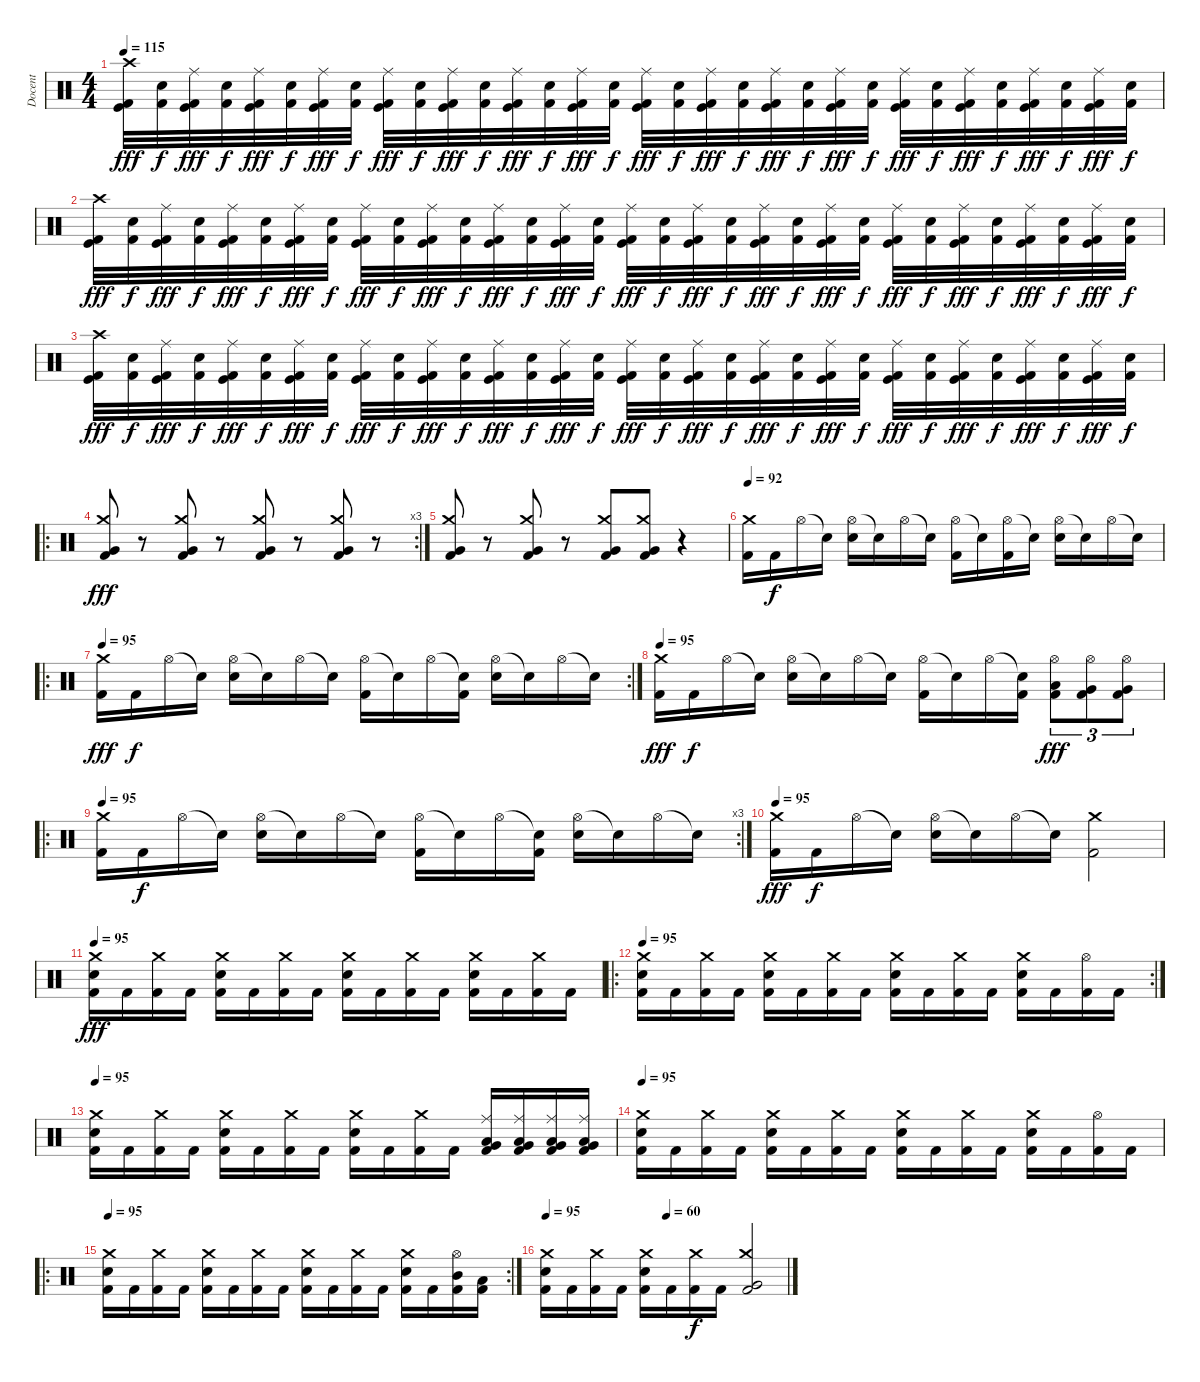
\track ("Docent" "Docent") {instrument percussion}
\staff {score}
\articulation defaults
\ts (4 4)
\tempo 115
\clef neutral
\ks c
("Crash high (hit)" "Kick (hit)" "Kick (hit) 2").32{dy fff} ("Electric Snare (hit)" "Kick (hit) 2").32{dy f} ("Ride (middle)" "Kick (hit)" "Kick (hit) 2").32{dy fff} ("Electric Snare (hit)" "Kick (hit) 2").32{dy f} ("Ride (middle)" "Kick (hit)" "Kick (hit) 2").32{dy fff} ("Electric Snare (hit)" "Kick (hit) 2").32{dy f} ("Ride (middle)" "Kick (hit)" "Kick (hit) 2").32{dy fff} ("Electric Snare (hit)" "Kick (hit) 2").32{dy f} ("Ride (middle)" "Kick (hit)" "Kick (hit) 2").32{dy fff} ("Electric Snare (hit)" "Kick (hit) 2").32{dy f} ("Ride (middle)" "Kick (hit)" "Kick (hit) 2").32{dy fff} ("Electric Snare (hit)" "Kick (hit) 2").32{dy f} ("Ride (middle)" "Kick (hit)" "Kick (hit) 2").32{dy fff} ("Electric Snare (hit)" "Kick (hit) 2").32{dy f} ("Ride (middle)" "Kick (hit)" "Kick (hit) 2").32{dy fff} ("Electric Snare (hit)" "Kick (hit) 2").32{dy f} ("Ride (middle)" "Kick (hit)" "Kick (hit) 2").32{dy fff} ("Electric Snare (hit)" "Kick (hit) 2").32{dy f} ("Ride (middle)" "Kick (hit)" "Kick (hit) 2").32{dy fff} ("Electric Snare (hit)" "Kick (hit) 2").32{dy f} ("Ride (middle)" "Kick (hit)" "Kick (hit) 2").32{dy fff} ("Electric Snare (hit)" "Kick (hit) 2").32{dy f} ("Ride (middle)" "Kick (hit)" "Kick (hit) 2").32{dy fff} ("Electric Snare (hit)" "Kick (hit) 2").32{dy f} ("Ride (middle)" "Kick (hit)" "Kick (hit) 2").32{dy fff} ("Electric Snare (hit)" "Kick (hit) 2").32{dy f} ("Ride (middle)" "Kick (hit)" "Kick (hit) 2").32{dy fff} ("Electric Snare (hit)" "Kick (hit) 2").32{dy f} ("Ride (middle)" "Kick (hit)" "Kick (hit) 2").32{dy fff} ("Electric Snare (hit)" "Kick (hit) 2").32{dy f} ("Ride (middle)" "Kick (hit)" "Kick (hit) 2").32{dy fff} ("Electric Snare (hit)" "Kick (hit) 2").32{dy f} |
("Crash high (hit)" "Kick (hit)" "Kick (hit) 2").32{dy fff} ("Electric Snare (hit)" "Kick (hit) 2").32{dy f} ("Ride (middle)" "Kick (hit)" "Kick (hit) 2").32{dy fff} ("Electric Snare (hit)" "Kick (hit) 2").32{dy f} ("Ride (middle)" "Kick (hit)" "Kick (hit) 2").32{dy fff} ("Electric Snare (hit)" "Kick (hit) 2").32{dy f} ("Ride (middle)" "Kick (hit)" "Kick (hit) 2").32{dy fff} ("Electric Snare (hit)" "Kick (hit) 2").32{dy f} ("Ride (middle)" "Kick (hit)" "Kick (hit) 2").32{dy fff} ("Electric Snare (hit)" "Kick (hit) 2").32{dy f} ("Ride (middle)" "Kick (hit)" "Kick (hit) 2").32{dy fff} ("Electric Snare (hit)" "Kick (hit) 2").32{dy f} ("Ride (middle)" "Kick (hit)" "Kick (hit) 2").32{dy fff} ("Electric Snare (hit)" "Kick (hit) 2").32{dy f} ("Ride (middle)" "Kick (hit)" "Kick (hit) 2").32{dy fff} ("Electric Snare (hit)" "Kick (hit) 2").32{dy f} ("Ride (middle)" "Kick (hit)" "Kick (hit) 2").32{dy fff} ("Electric Snare (hit)" "Kick (hit) 2").32{dy f} ("Ride (middle)" "Kick (hit)" "Kick (hit) 2").32{dy fff} ("Electric Snare (hit)" "Kick (hit) 2").32{dy f} ("Ride (middle)" "Kick (hit)" "Kick (hit) 2").32{dy fff} ("Electric Snare (hit)" "Kick (hit) 2").32{dy f} ("Ride (middle)" "Kick (hit)" "Kick (hit) 2").32{dy fff} ("Electric Snare (hit)" "Kick (hit) 2").32{dy f} ("Ride (middle)" "Kick (hit)" "Kick (hit) 2").32{dy fff} ("Electric Snare (hit)" "Kick (hit) 2").32{dy f} ("Ride (middle)" "Kick (hit)" "Kick (hit) 2").32{dy fff} ("Electric Snare (hit)" "Kick (hit) 2").32{dy f} ("Ride (middle)" "Kick (hit)" "Kick (hit) 2").32{dy fff} ("Electric Snare (hit)" "Kick (hit) 2").32{dy f} ("Ride (middle)" "Kick (hit)" "Kick (hit) 2").32{dy fff} ("Electric Snare (hit)" "Kick (hit) 2").32{dy f} |
("Crash high (hit)" "Kick (hit)" "Kick (hit) 2").32{dy fff} ("Electric Snare (hit)" "Kick (hit) 2").32{dy f} ("Ride (middle)" "Kick (hit)" "Kick (hit) 2").32{dy fff} ("Electric Snare (hit)" "Kick (hit) 2").32{dy f} ("Ride (middle)" "Kick (hit)" "Kick (hit) 2").32{dy fff} ("Electric Snare (hit)" "Kick (hit) 2").32{dy f} ("Ride (middle)" "Kick (hit)" "Kick (hit) 2").32{dy fff} ("Electric Snare (hit)" "Kick (hit) 2").32{dy f} ("Ride (middle)" "Kick (hit)" "Kick (hit) 2").32{dy fff} ("Electric Snare (hit)" "Kick (hit) 2").32{dy f} ("Ride (middle)" "Kick (hit)" "Kick (hit) 2").32{dy fff} ("Electric Snare (hit)" "Kick (hit) 2").32{dy f} ("Ride (middle)" "Kick (hit)" "Kick (hit) 2").32{dy fff} ("Electric Snare (hit)" "Kick (hit) 2").32{dy f} ("Ride (middle)" "Kick (hit)" "Kick (hit) 2").32{dy fff} ("Electric Snare (hit)" "Kick (hit) 2").32{dy f} ("Ride (middle)" "Kick (hit)" "Kick (hit) 2").32{dy fff} ("Electric Snare (hit)" "Kick (hit) 2").32{dy f} ("Ride (middle)" "Kick (hit)" "Kick (hit) 2").32{dy fff} ("Electric Snare (hit)" "Kick (hit) 2").32{dy f} ("Ride (middle)" "Kick (hit)" "Kick (hit) 2").32{dy fff} ("Electric Snare (hit)" "Kick (hit) 2").32{dy f} ("Ride (middle)" "Kick (hit)" "Kick (hit) 2").32{dy fff} ("Electric Snare (hit)" "Kick (hit) 2").32{dy f} ("Ride (middle)" "Kick (hit)" "Kick (hit) 2").32{dy fff} ("Electric Snare (hit)" "Kick (hit) 2").32{dy f} ("Ride (middle)" "Kick (hit)" "Kick (hit) 2").32{dy fff} ("Electric Snare (hit)" "Kick (hit) 2").32{dy f} ("Ride (middle)" "Kick (hit)" "Kick (hit) 2").32{dy fff} ("Electric Snare (hit)" "Kick (hit) 2").32{dy f} ("Ride (middle)" "Kick (hit)" "Kick (hit) 2").32{dy fff} ("Electric Snare (hit)" "Kick (hit) 2").32{dy f} |
\ro
\rc 3
("Crash medium (hit)" "Very Low Tom (hit)" "Kick (hit) 2").8{dy fff} r.8 ("Crash medium (hit)" "Very Low Tom (hit)" "Kick (hit) 2").8 r.8 ("Crash medium (hit)" "Very Low Tom (hit)" "Kick (hit) 2").8 r.8 ("Crash medium (hit)" "Very Low Tom (hit)" "Kick (hit) 2").8 r.8 |
("Crash medium (hit)" "Very Low Tom (hit)" "Kick (hit) 2").8 r.8 ("Crash medium (hit)" "Very Low Tom (hit)" "Kick (hit) 2").8 r.8 ("Crash medium (hit)" "Very Low Tom (hit)" "Kick (hit) 2").8 ("Crash medium (hit)" "Very Low Tom (hit)" "Kick (hit) 2").8 r.4 |
\tempo 92
("Crash medium (hit)" "Kick (hit) 2").16 "Kick (hit) 2".16{dy f} "Hi-Hat (open)".16 "Snare (hit)"{t}.16 ("Hi-Hat (open)" "Electric Snare (hit)").16 "Snare (hit)"{t}.16 "Hi-Hat (open)".16 "Snare (hit)"{t}.16 ("Hi-Hat (open)" "Kick (hit) 2").16 "Snare (hit)"{t}.16 ("Hi-Hat (open)" "Kick (hit) 2").16 "Snare (hit)"{t}.16 ("Hi-Hat (open)" "Electric Snare (hit)").16 "Snare (hit)"{t}.16 "Hi-Hat (open)".16 "Snare (hit)"{t}.16 |
\ro
\rc 2
\tempo 95
("Crash medium (hit)" "Kick (hit) 2").16{dy fff} "Kick (hit) 2".16{dy f} "Hi-Hat (open)".16 "Snare (hit)"{t}.16 ("Hi-Hat (open)" "Electric Snare (hit)").16 "Snare (hit)"{t}.16 "Hi-Hat (open)".16 "Snare (hit)"{t}.16 ("Hi-Hat (open)" "Kick (hit) 2").16 "Snare (hit)"{t}.16 "Hi-Hat (open)".16 ("Snare (hit)"{t} "Kick (hit) 2").16 ("Hi-Hat (open)" "Electric Snare (hit)").16 "Snare (hit)"{t}.16 "Hi-Hat (open)".16 "Snare (hit)"{t}.16 |
\tempo 95
("Crash medium (hit)" "Kick (hit) 2").16{dy fff} "Kick (hit) 2".16{dy f} "Hi-Hat (open)".16 "Snare (hit)"{t}.16 ("Hi-Hat (open)" "Electric Snare (hit)").16 "Snare (hit)"{t}.16 "Hi-Hat (open)".16 "Snare (hit)"{t}.16 ("Hi-Hat (open)" "Kick (hit) 2").16 "Snare (hit)"{t}.16 "Hi-Hat (open)".16 ("Snare (hit)"{t} "Kick (hit) 2").16 ("Hi-Hat (open)" "Low Tom (hit)" "Kick (hit) 2").8{tu (3 2) dy fff} ("Hi-Hat (open)" "Very Low Tom (hit)" "Kick (hit) 2").8{tu (3 2)} ("Hi-Hat (open)" "Very Low Tom (hit)" "Kick (hit) 2").8{tu (3 2)} |
\ro
\rc 3
\tempo 95
("Crash medium (hit)" "Kick (hit) 2").16 "Kick (hit) 2".16{dy f} "Hi-Hat (open)".16 "Snare (hit)"{t}.16 ("Hi-Hat (open)" "Electric Snare (hit)").16 "Snare (hit)"{t}.16 "Hi-Hat (open)".16 "Snare (hit)"{t}.16 ("Hi-Hat (open)" "Kick (hit) 2").16 "Snare (hit)"{t}.16 "Hi-Hat (open)".16 ("Snare (hit)"{t} "Kick (hit) 2").16 ("Hi-Hat (open)" "Electric Snare (hit)").16 "Snare (hit)"{t}.16 "Hi-Hat (open)".16 "Snare (hit)"{t}.16 |
\tempo 95
("Crash medium (hit)" "Kick (hit) 2").16{dy fff} "Kick (hit) 2".16{dy f} "Hi-Hat (open)".16 "Snare (hit)"{t}.16 ("Hi-Hat (open)" "Electric Snare (hit)").16 "Snare (hit)"{t}.16 "Hi-Hat (open)".16 "Snare (hit)"{t}.16 ("Crash medium (hit)" "Kick (hit) 2").2 |
\tempo 95
("Crash medium (hit)" "Electric Snare (hit)" "Kick (hit) 2").16{dy fff} "Kick (hit) 2".16 ("Crash medium (hit)" "Kick (hit) 2").16 "Kick (hit) 2".16 ("Crash medium (hit)" "Electric Snare (hit)" "Kick (hit) 2").16 "Kick (hit) 2".16 ("Crash medium (hit)" "Kick (hit) 2").16 "Kick (hit) 2".16 ("Crash medium (hit)" "Electric Snare (hit)" "Kick (hit) 2").16 "Kick (hit) 2".16 ("Crash medium (hit)" "Kick (hit) 2").16 "Kick (hit) 2".16 ("Crash medium (hit)" "Electric Snare (hit)" "Kick (hit) 2").16 "Kick (hit) 2".16 ("Crash medium (hit)" "Kick (hit) 2").16 "Kick (hit) 2".16 |
\ro
\rc 2
\tempo 95
("Crash medium (hit)" "Electric Snare (hit)" "Kick (hit) 2").16 "Kick (hit) 2".16 ("Crash medium (hit)" "Kick (hit) 2").16 "Kick (hit) 2".16 ("Crash medium (hit)" "Electric Snare (hit)" "Kick (hit) 2").16 "Kick (hit) 2".16 ("Crash medium (hit)" "Kick (hit) 2").16 "Kick (hit) 2".16 ("Crash medium (hit)" "Electric Snare (hit)" "Kick (hit) 2").16 "Kick (hit) 2".16 ("Crash medium (hit)" "Kick (hit) 2").16 "Kick (hit) 2".16 ("Crash medium (hit)" "Electric Snare (hit)" "Kick (hit) 2").16 "Kick (hit) 2".16 ("Hi-Hat (open)" "Kick (hit) 2").16 "Kick (hit) 2".16 |
\tempo 95
("Crash medium (hit)" "Electric Snare (hit)" "Kick (hit) 2").16 "Kick (hit) 2".16 ("Crash medium (hit)" "Kick (hit) 2").16 "Kick (hit) 2".16 ("Crash medium (hit)" "Electric Snare (hit)" "Kick (hit) 2").16 "Kick (hit) 2".16 ("Crash medium (hit)" "Kick (hit) 2").16 "Kick (hit) 2".16 ("Crash medium (hit)" "Electric Snare (hit)" "Kick (hit) 2").16 "Kick (hit) 2".16 ("Crash medium (hit)" "Kick (hit) 2").16 "Kick (hit) 2".16 ("Ride (middle)" "Low Tom (hit)" "Very Low Tom (hit)" "Kick (hit) 2").16 ("Ride (middle)" "Low Tom (hit)" "Very Low Tom (hit)" "Kick (hit) 2").16 ("Ride (middle)" "Low Tom (hit)" "Very Low Tom (hit)" "Kick (hit) 2").16 ("Ride (middle)" "Low Tom (hit)" "Very Low Tom (hit)" "Kick (hit) 2").16 |
\tempo 95
("Crash medium (hit)" "Electric Snare (hit)" "Kick (hit) 2").16 "Kick (hit) 2".16 ("Crash medium (hit)" "Kick (hit) 2").16 "Kick (hit) 2".16 ("Crash medium (hit)" "Electric Snare (hit)" "Kick (hit) 2").16 "Kick (hit) 2".16 ("Crash medium (hit)" "Kick (hit) 2").16 "Kick (hit) 2".16 ("Crash medium (hit)" "Electric Snare (hit)" "Kick (hit) 2").16 "Kick (hit) 2".16 ("Crash medium (hit)" "Kick (hit) 2").16 "Kick (hit) 2".16 ("Crash medium (hit)" "Electric Snare (hit)" "Kick (hit) 2").16 "Kick (hit) 2".16 ("Hi-Hat (open)" "Kick (hit) 2").16 "Kick (hit) 2".16 |
\ro
\rc 2
\tempo 95
("Crash medium (hit)" "Electric Snare (hit)" "Kick (hit) 2").16 "Kick (hit) 2".16 ("Crash medium (hit)" "Kick (hit) 2").16 "Kick (hit) 2".16 ("Crash medium (hit)" "Electric Snare (hit)" "Kick (hit) 2").16 "Kick (hit) 2".16 ("Crash medium (hit)" "Kick (hit) 2").16 "Kick (hit) 2".16 ("Crash medium (hit)" "Electric Snare (hit)" "Kick (hit) 2").16 "Kick (hit) 2".16 ("Crash medium (hit)" "Kick (hit) 2").16 "Kick (hit) 2".16 ("Crash medium (hit)" "Electric Snare (hit)" "Kick (hit) 2").16 "Kick (hit) 2".16 ("Hi-Hat (open)" "Mid Tom (hit)" "Kick (hit) 2").16 ("Low Tom (hit)" "Kick (hit) 2").16 |
\tempo 95
\tempo (60 0.5)
("Crash medium (hit)" "Electric Snare (hit)" "Kick (hit) 2").16 "Kick (hit) 2".16 ("Crash medium (hit)" "Kick (hit) 2").16 "Kick (hit) 2".16 ("Crash medium (hit)" "Electric Snare (hit)" "Kick (hit) 2").16 "Kick (hit) 2".16 ("Crash medium (hit)" "Kick (hit) 2").16{dy f} "Kick (hit) 2".16 ("Crash medium (hit)" "Kick (hit) 2" "Very Low Tom (hit)").2
